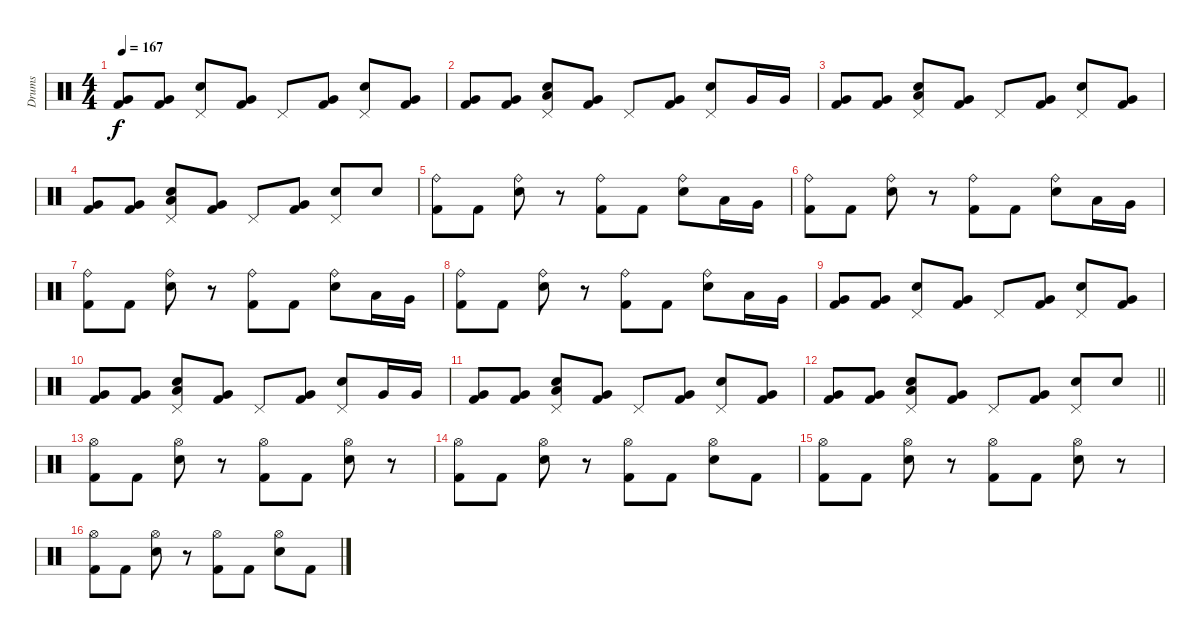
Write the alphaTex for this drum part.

\track ("Drums" "Drums") {instrument percussion}
\staff {score}
\articulation defaults
\ts (4 4)
\tempo 167
\clef neutral
\ks c
("Very Low Tom (hit)" "Kick (hit) 2").8{dy f} ("Very Low Tom (hit)" "Kick (hit) 2").8 ("Electric Snare (hit)" "Pedal Hi-Hat (hit)").8 ("Very Low Tom (hit)" "Kick (hit) 2").8 "Pedal Hi-Hat (hit)".8 ("Very Low Tom (hit)" "Kick (hit) 2").8 ("Electric Snare (hit)" "Pedal Hi-Hat (hit)").8 ("Very Low Tom (hit)" "Kick (hit) 2").8 |
("Very Low Tom (hit)" "Kick (hit) 2").8 ("Very Low Tom (hit)" "Kick (hit) 2").8 ("Electric Snare (hit)" "Pedal Hi-Hat (hit)" "Low Floor Tom (hit)").8 ("Very Low Tom (hit)" "Kick (hit) 2").8 "Pedal Hi-Hat (hit)".8 ("Very Low Tom (hit)" "Kick (hit) 2").8 ("Electric Snare (hit)" "Pedal Hi-Hat (hit)").8 "Very Low Tom (hit)".16 "Very Low Tom (hit)".16 |
("Very Low Tom (hit)" "Kick (hit) 2").8 ("Very Low Tom (hit)" "Kick (hit) 2").8 ("Electric Snare (hit)" "Pedal Hi-Hat (hit)" "Low Floor Tom (hit)").8 ("Very Low Tom (hit)" "Kick (hit) 2").8 "Pedal Hi-Hat (hit)".8 ("Very Low Tom (hit)" "Kick (hit) 2").8 ("Electric Snare (hit)" "Pedal Hi-Hat (hit)").8 ("Very Low Tom (hit)" "Kick (hit) 2").8 |
("Very Low Tom (hit)" "Kick (hit) 2").8 ("Very Low Tom (hit)" "Kick (hit) 2").8 ("Electric Snare (hit)" "Pedal Hi-Hat (hit)" "Low Floor Tom (hit)").8 ("Very Low Tom (hit)" "Kick (hit) 2").8 "Pedal Hi-Hat (hit)".8 ("Very Low Tom (hit)" "Kick (hit) 2").8 ("Electric Snare (hit)" "Pedal Hi-Hat (hit)").8 "Electric Snare (hit)".8 |
("Ride (bell)" "Kick (hit) 2").8 "Kick (hit) 2".8 ("Ride (bell)" "Electric Snare (hit)").8 r.8 ("Ride (bell)" "Kick (hit) 2").8 "Kick (hit) 2".8 ("Ride (bell)" "Electric Snare (hit)").8 "Low Tom (hit)".16 "Very Low Tom (hit)".16 |
("Ride (bell)" "Kick (hit) 2").8 "Kick (hit) 2".8 ("Ride (bell)" "Electric Snare (hit)").8 r.8 ("Ride (bell)" "Kick (hit) 2").8 "Kick (hit) 2".8 ("Ride (bell)" "Electric Snare (hit)").8 "Low Tom (hit)".16 "Very Low Tom (hit)".16 |
("Ride (bell)" "Kick (hit) 2").8 "Kick (hit) 2".8 ("Ride (bell)" "Electric Snare (hit)").8 r.8 ("Ride (bell)" "Kick (hit) 2").8 "Kick (hit) 2".8 ("Ride (bell)" "Electric Snare (hit)").8 "Low Tom (hit)".16 "Very Low Tom (hit)".16 |
("Ride (bell)" "Kick (hit) 2").8 "Kick (hit) 2".8 ("Ride (bell)" "Electric Snare (hit)").8 r.8 ("Ride (bell)" "Kick (hit) 2").8 "Kick (hit) 2".8 ("Ride (bell)" "Electric Snare (hit)").8 "Low Tom (hit)".16 "Very Low Tom (hit)".16 |
("Very Low Tom (hit)" "Kick (hit) 2").8 ("Very Low Tom (hit)" "Kick (hit) 2").8 ("Electric Snare (hit)" "Pedal Hi-Hat (hit)").8 ("Very Low Tom (hit)" "Kick (hit) 2").8 "Pedal Hi-Hat (hit)".8 ("Very Low Tom (hit)" "Kick (hit) 2").8 ("Electric Snare (hit)" "Pedal Hi-Hat (hit)").8 ("Very Low Tom (hit)" "Kick (hit) 2").8 |
("Very Low Tom (hit)" "Kick (hit) 2").8 ("Very Low Tom (hit)" "Kick (hit) 2").8 ("Electric Snare (hit)" "Pedal Hi-Hat (hit)" "Low Floor Tom (hit)").8 ("Very Low Tom (hit)" "Kick (hit) 2").8 "Pedal Hi-Hat (hit)".8 ("Very Low Tom (hit)" "Kick (hit) 2").8 ("Electric Snare (hit)" "Pedal Hi-Hat (hit)").8 "Very Low Tom (hit)".16 "Very Low Tom (hit)".16 |
("Very Low Tom (hit)" "Kick (hit) 2").8 ("Very Low Tom (hit)" "Kick (hit) 2").8 ("Electric Snare (hit)" "Pedal Hi-Hat (hit)" "Low Floor Tom (hit)").8 ("Very Low Tom (hit)" "Kick (hit) 2").8 "Pedal Hi-Hat (hit)".8 ("Very Low Tom (hit)" "Kick (hit) 2").8 ("Electric Snare (hit)" "Pedal Hi-Hat (hit)").8 ("Very Low Tom (hit)" "Kick (hit) 2").8 |
\barLineRight lightlight
("Very Low Tom (hit)" "Kick (hit) 2").8 ("Very Low Tom (hit)" "Kick (hit) 2").8 ("Electric Snare (hit)" "Pedal Hi-Hat (hit)" "Low Floor Tom (hit)").8 ("Very Low Tom (hit)" "Kick (hit) 2").8 "Pedal Hi-Hat (hit)".8 ("Very Low Tom (hit)" "Kick (hit) 2").8 ("Electric Snare (hit)" "Pedal Hi-Hat (hit)").8 "Electric Snare (hit)".8 |
("Hi-Hat (open)" "Kick (hit) 2").8 "Kick (hit) 2".8 ("Hi-Hat (open)" "Electric Snare (hit)").8 r.8 ("Hi-Hat (open)" "Kick (hit) 2").8 "Kick (hit) 2".8 ("Hi-Hat (open)" "Electric Snare (hit)").8 r.8 |
("Hi-Hat (open)" "Kick (hit) 2").8 "Kick (hit) 2".8 ("Hi-Hat (open)" "Electric Snare (hit)").8 r.8 ("Hi-Hat (open)" "Kick (hit) 2").8 "Kick (hit) 2".8 ("Hi-Hat (open)" "Electric Snare (hit)").8 "Kick (hit) 2".8 |
("Hi-Hat (open)" "Kick (hit) 2").8 "Kick (hit) 2".8 ("Hi-Hat (open)" "Electric Snare (hit)").8 r.8 ("Hi-Hat (open)" "Kick (hit) 2").8 "Kick (hit) 2".8 ("Hi-Hat (open)" "Electric Snare (hit)").8 r.8 |
("Hi-Hat (open)" "Kick (hit) 2").8 "Kick (hit) 2".8 ("Hi-Hat (open)" "Electric Snare (hit)").8 r.8 ("Hi-Hat (open)" "Kick (hit) 2").8 "Kick (hit) 2".8 ("Hi-Hat (open)" "Electric Snare (hit)").8 "Kick (hit) 2".8
